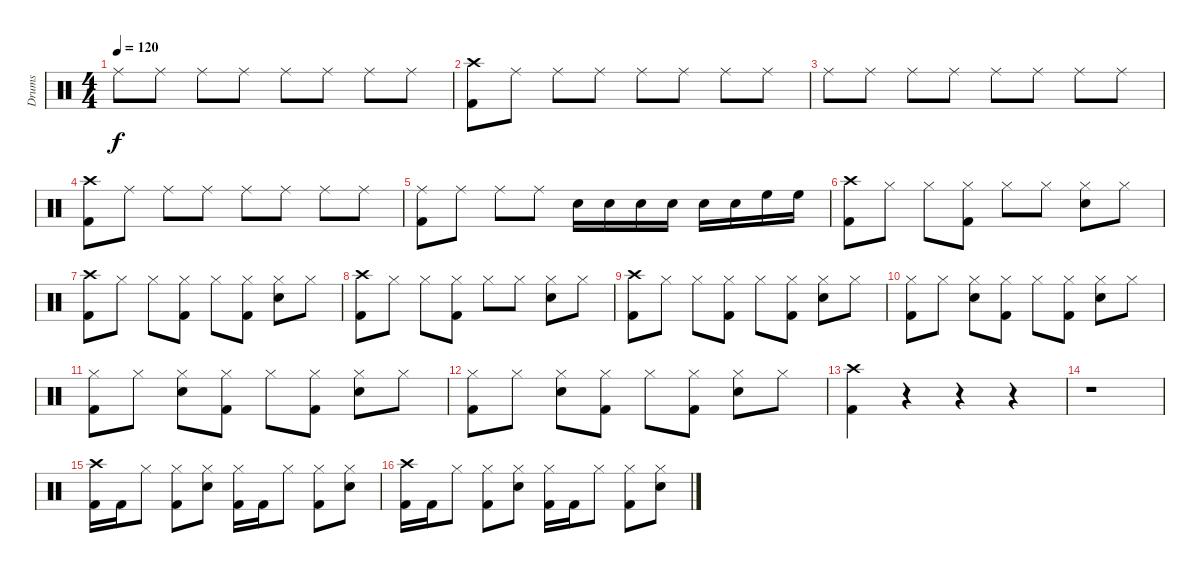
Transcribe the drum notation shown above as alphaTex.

\track ("Drums" "Drums") {instrument percussion}
\staff {score}
\articulation defaults
\ts (4 4)
\tempo 120
\clef neutral
\ks c "Ride (middle)".8{dy f} "Ride (middle)".8 "Ride (middle)".8 "Ride (middle)".8 "Ride (middle)".8 "Ride (middle)".8 "Ride (middle)".8 "Ride (middle)".8
|
("Crash high (hit)" "Kick (hit) 2").8 "Ride (middle)".8 "Ride (middle)".8 "Ride (middle)".8 "Ride (middle)".8 "Ride (middle)".8 "Ride (middle)".8 "Ride (middle)".8 |
"Ride (middle)".8 "Ride (middle)".8 "Ride (middle)".8 "Ride (middle)".8 "Ride (middle)".8 "Ride (middle)".8 "Ride (middle)".8 "Ride (middle)".8 |
("Crash high (hit)" "Kick (hit) 2").8 "Ride (middle)".8 "Ride (middle)".8 "Ride (middle)".8 "Ride (middle)".8 "Ride (middle)".8 "Ride (middle)".8 "Ride (middle)".8 |
("Ride (middle)" "Kick (hit) 2").8 "Ride (middle)".8 "Ride (middle)".8{volume 6} "Ride (middle)".8 "Snare (hit) 2".16{volume 10} "Snare (hit) 2".16 "Snare (hit) 2".16{volume 12} "Snare (hit) 2".16 "Snare (hit) 2".16{volume 14} "Snare (hit) 2".16 "High Floor Tom (hit)".16 "High Floor Tom (hit)".16 |
("Crash high (hit)" "Kick (hit) 2").8 "Hi-Hat (closed)".8 "Hi-Hat (closed)".8 ("Hi-Hat (closed)" "Kick (hit) 2").8 "Hi-Hat (closed)".8 "Hi-Hat (closed)".8 ("Hi-Hat (closed)" "Snare (hit) 2").8 "Hi-Hat (closed)".8 |
("Crash high (hit)" "Kick (hit) 2").8 "Hi-Hat (closed)".8 "Hi-Hat (closed)".8 ("Hi-Hat (closed)" "Kick (hit) 2").8 "Hi-Hat (closed)".8 ("Hi-Hat (closed)" "Kick (hit) 2").8 ("Hi-Hat (closed)" "Snare (hit) 2").8 "Hi-Hat (closed)".8 |
("Crash high (hit)" "Kick (hit) 2").8 "Hi-Hat (closed)".8 "Hi-Hat (closed)".8 ("Hi-Hat (closed)" "Kick (hit) 2").8 "Hi-Hat (closed)".8 "Hi-Hat (closed)".8 ("Hi-Hat (closed)" "Snare (hit) 2").8 "Hi-Hat (closed)".8 |
("Crash high (hit)" "Kick (hit) 2").8 "Hi-Hat (closed)".8 "Hi-Hat (closed)".8 ("Hi-Hat (closed)" "Kick (hit) 2").8 "Hi-Hat (closed)".8 ("Hi-Hat (closed)" "Kick (hit) 2").8 ("Hi-Hat (closed)" "Snare (hit) 2").8 "Hi-Hat (closed)".8 |
("Hi-Hat (closed)" "Kick (hit) 2").8 "Hi-Hat (closed)".8 ("Hi-Hat (closed)" "Snare (hit) 2").8 ("Hi-Hat (closed)" "Kick (hit) 2").8 "Hi-Hat (closed)".8 ("Hi-Hat (closed)" "Kick (hit) 2").8 ("Hi-Hat (closed)" "Snare (hit) 2").8 "Hi-Hat (closed)".8 |
("Hi-Hat (closed)" "Kick (hit) 2").8 "Hi-Hat (closed)".8 ("Hi-Hat (closed)" "Snare (hit) 2").8 ("Hi-Hat (closed)" "Kick (hit) 2").8 "Hi-Hat (closed)".8 ("Hi-Hat (closed)" "Kick (hit) 2").8 ("Hi-Hat (closed)" "Snare (hit) 2").8 "Hi-Hat (closed)".8 |
("Hi-Hat (closed)" "Kick (hit) 2").8 "Hi-Hat (closed)".8 ("Hi-Hat (closed)" "Snare (hit) 2").8 ("Hi-Hat (closed)" "Kick (hit) 2").8 "Hi-Hat (closed)".8 ("Hi-Hat (closed)" "Kick (hit) 2").8 ("Hi-Hat (closed)" "Snare (hit) 2").8 "Hi-Hat (closed)".8 |
("Crash high (hit)" "Kick (hit) 2").4 r.4 r.4 r.4 |
r.1 |
("Crash high (hit)" "Kick (hit) 2").16 "Kick (hit) 2".16 "Hi-Hat (closed)".8 ("Hi-Hat (closed)" "Kick (hit) 2").8 ("Hi-Hat (closed)" "Snare (hit) 2").8 ("Hi-Hat (closed)" "Kick (hit) 2").16 "Kick (hit) 2".16 "Hi-Hat (closed)".8 ("Hi-Hat (closed)" "Kick (hit) 2").8 ("Hi-Hat (closed)" "Snare (hit) 2").8 |
("Crash high (hit)" "Kick (hit) 2").16 "Kick (hit) 2".16 "Hi-Hat (closed)".8 ("Hi-Hat (closed)" "Kick (hit) 2").8 ("Hi-Hat (closed)" "Snare (hit) 2").8 ("Hi-Hat (closed)" "Kick (hit) 2").16 "Kick (hit) 2".16 "Hi-Hat (closed)".8 ("Hi-Hat (closed)" "Kick (hit) 2").8 ("Hi-Hat (closed)" "Snare (hit) 2").8
